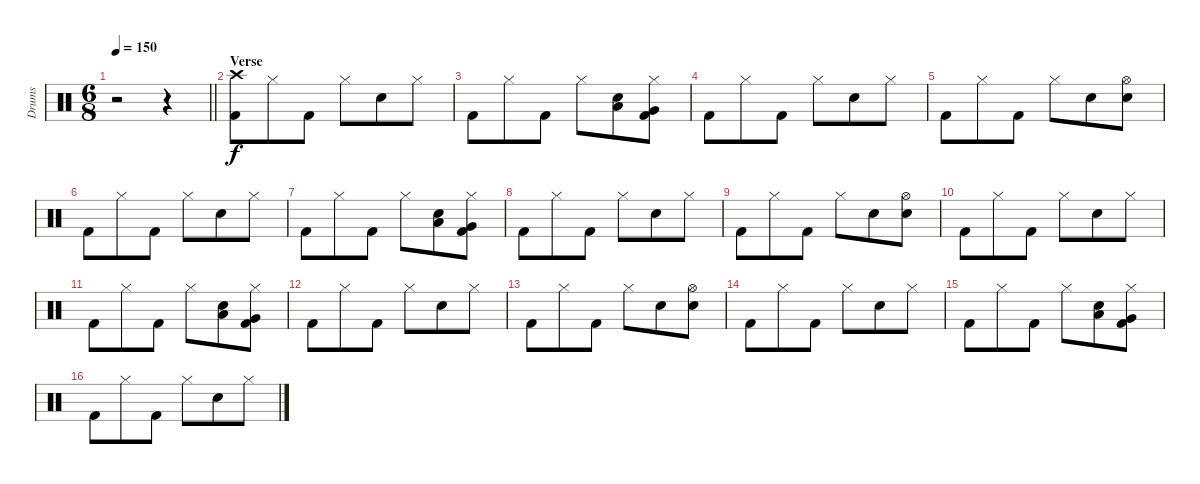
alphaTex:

\track ("Drums" "Drums") {mute instrument percussion}
\staff {score}
\articulation defaults
\ts (6 8)
\tempo 150
\clef neutral
\barLineRight lightlight
\ks c
r.2{dy f} r.4 |
\section ("" "Verse")
("Crash high (hit)" "Kick (hit) 2").8 "Hi-Hat (closed)".8 "Kick (hit) 2".8 "Hi-Hat (closed)".8 "Electric Snare (hit)".8 "Hi-Hat (closed)".8 |
"Kick (hit) 2".8 "Hi-Hat (closed)".8 "Kick (hit) 2".8 "Hi-Hat (closed)".8 ("Low Tom (hit)" "Electric Snare (hit)").8 ("Very Low Tom (hit)" "Hi-Hat (closed)" "Kick (hit) 2").8 |
"Kick (hit) 2".8 "Hi-Hat (closed)".8 "Kick (hit) 2".8 "Hi-Hat (closed)".8 "Electric Snare (hit)".8 "Hi-Hat (closed)".8 |
"Kick (hit) 2".8 "Hi-Hat (closed)".8 "Kick (hit) 2".8 "Hi-Hat (closed)".8 "Electric Snare (hit)".8 ("Hi-Hat (open)" "Electric Snare (hit)").8 |
"Kick (hit) 2".8 "Hi-Hat (closed)".8 "Kick (hit) 2".8 "Hi-Hat (closed)".8 "Electric Snare (hit)".8 "Hi-Hat (closed)".8 |
"Kick (hit) 2".8 "Hi-Hat (closed)".8 "Kick (hit) 2".8 "Hi-Hat (closed)".8 ("Low Tom (hit)" "Electric Snare (hit)").8 ("Very Low Tom (hit)" "Hi-Hat (closed)" "Kick (hit) 2").8 |
"Kick (hit) 2".8 "Hi-Hat (closed)".8 "Kick (hit) 2".8 "Hi-Hat (closed)".8 "Electric Snare (hit)".8 "Hi-Hat (closed)".8 |
"Kick (hit) 2".8 "Hi-Hat (closed)".8 "Kick (hit) 2".8 "Hi-Hat (closed)".8 "Electric Snare (hit)".8 ("Hi-Hat (open)" "Electric Snare (hit)").8 |
"Kick (hit) 2".8 "Hi-Hat (closed)".8 "Kick (hit) 2".8 "Hi-Hat (closed)".8 "Electric Snare (hit)".8 "Hi-Hat (closed)".8 |
"Kick (hit) 2".8 "Hi-Hat (closed)".8 "Kick (hit) 2".8 "Hi-Hat (closed)".8 ("Low Tom (hit)" "Electric Snare (hit)").8 ("Very Low Tom (hit)" "Hi-Hat (closed)" "Kick (hit) 2").8 |
"Kick (hit) 2".8 "Hi-Hat (closed)".8 "Kick (hit) 2".8 "Hi-Hat (closed)".8 "Electric Snare (hit)".8 "Hi-Hat (closed)".8 |
"Kick (hit) 2".8 "Hi-Hat (closed)".8 "Kick (hit) 2".8 "Hi-Hat (closed)".8 "Electric Snare (hit)".8 ("Hi-Hat (open)" "Electric Snare (hit)").8 |
"Kick (hit) 2".8 "Hi-Hat (closed)".8 "Kick (hit) 2".8 "Hi-Hat (closed)".8 "Electric Snare (hit)".8 "Hi-Hat (closed)".8 |
"Kick (hit) 2".8 "Hi-Hat (closed)".8 "Kick (hit) 2".8 "Hi-Hat (closed)".8 ("Low Tom (hit)" "Electric Snare (hit)").8 ("Very Low Tom (hit)" "Hi-Hat (closed)" "Kick (hit) 2").8 |
"Kick (hit) 2".8 "Hi-Hat (closed)".8 "Kick (hit) 2".8 "Hi-Hat (closed)".8 "Electric Snare (hit)".8 "Hi-Hat (closed)".8
